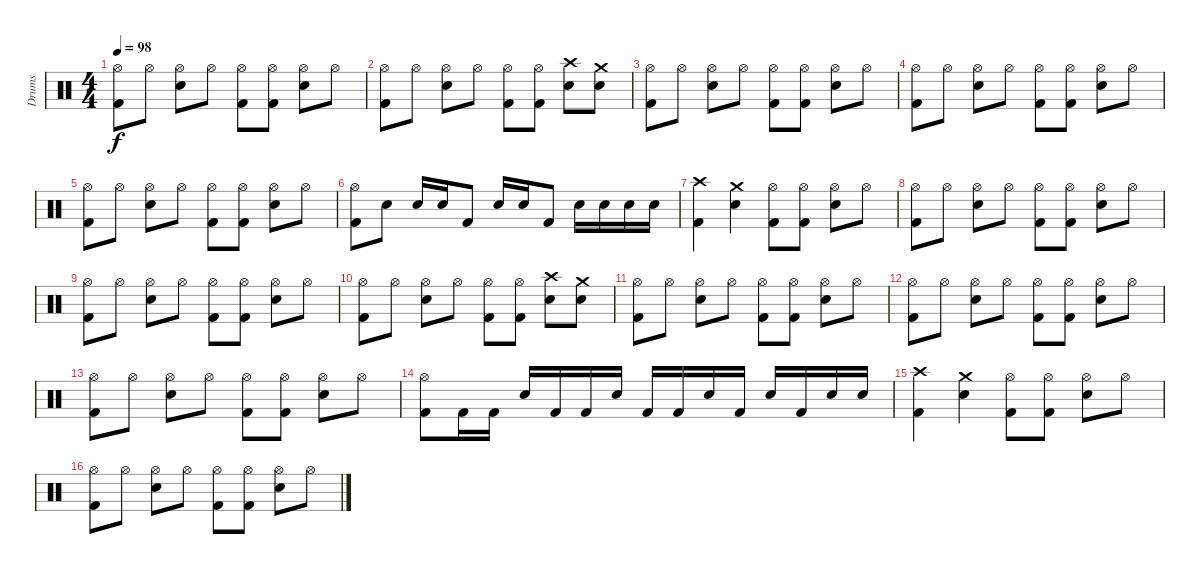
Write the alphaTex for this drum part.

\track ("Drums" "Drums") {instrument percussion}
\staff {score}
\articulation defaults
\ts (4 4)
\tempo 98
\clef neutral
\ks c
("Hi-Hat (open)" "Kick (hit) 2").8{dy f} "Hi-Hat (open)".8 ("Hi-Hat (open)" "Snare (hit) 2").8 "Hi-Hat (open)".8 ("Hi-Hat (open)" "Kick (hit) 2").8 ("Hi-Hat (open)" "Kick (hit) 2").8 ("Hi-Hat (open)" "Snare (hit) 2").8 "Hi-Hat (open)".8 |
("Hi-Hat (open)" "Kick (hit) 2").8 "Hi-Hat (open)".8 ("Hi-Hat (open)" "Snare (hit) 2").8 "Hi-Hat (open)".8 ("Hi-Hat (open)" "Kick (hit) 2").8 ("Hi-Hat (open)" "Kick (hit) 2").8 ("Crash high (hit)" "Snare (hit) 2").8 ("Crash medium (hit)" "Snare (hit) 2").8 |
("Hi-Hat (open)" "Kick (hit) 2").8 "Hi-Hat (open)".8 ("Hi-Hat (open)" "Snare (hit) 2").8 "Hi-Hat (open)".8 ("Hi-Hat (open)" "Kick (hit) 2").8 ("Hi-Hat (open)" "Kick (hit) 2").8 ("Hi-Hat (open)" "Snare (hit) 2").8 "Hi-Hat (open)".8 |
("Hi-Hat (open)" "Kick (hit) 2").8 "Hi-Hat (open)".8 ("Hi-Hat (open)" "Snare (hit) 2").8 "Hi-Hat (open)".8 ("Hi-Hat (open)" "Kick (hit) 2").8 ("Hi-Hat (open)" "Kick (hit) 2").8 ("Hi-Hat (open)" "Snare (hit) 2").8 "Hi-Hat (open)".8 |
("Hi-Hat (open)" "Kick (hit) 2").8 "Hi-Hat (open)".8 ("Hi-Hat (open)" "Snare (hit) 2").8 "Hi-Hat (open)".8 ("Hi-Hat (open)" "Kick (hit) 2").8 ("Hi-Hat (open)" "Kick (hit) 2").8 ("Hi-Hat (open)" "Snare (hit) 2").8 "Hi-Hat (open)".8 |
("Hi-Hat (open)" "Kick (hit) 2").8 "Snare (hit) 2".8 "Snare (hit) 2".16 "Snare (hit) 2".16 "Kick (hit) 2".8 "Snare (hit) 2".16 "Snare (hit) 2".16 "Kick (hit) 2".8 "Snare (hit) 2".16 "Snare (hit) 2".16 "Snare (hit) 2".16 "Snare (hit) 2".16 |
("Crash high (hit)" "Kick (hit) 2").4 ("Crash medium (hit)" "Snare (hit) 2").4 ("Hi-Hat (open)" "Kick (hit) 2").8 ("Hi-Hat (open)" "Kick (hit) 2").8 ("Hi-Hat (open)" "Snare (hit) 2").8 "Hi-Hat (open)".8 |
("Hi-Hat (open)" "Kick (hit) 2").8 "Hi-Hat (open)".8 ("Hi-Hat (open)" "Snare (hit) 2").8 "Hi-Hat (open)".8 ("Hi-Hat (open)" "Kick (hit) 2").8 ("Hi-Hat (open)" "Kick (hit) 2").8 ("Hi-Hat (open)" "Snare (hit) 2").8 "Hi-Hat (open)".8 |
("Hi-Hat (open)" "Kick (hit) 2").8 "Hi-Hat (open)".8 ("Hi-Hat (open)" "Snare (hit) 2").8 "Hi-Hat (open)".8 ("Hi-Hat (open)" "Kick (hit) 2").8 ("Hi-Hat (open)" "Kick (hit) 2").8 ("Hi-Hat (open)" "Snare (hit) 2").8 "Hi-Hat (open)".8 |
("Hi-Hat (open)" "Kick (hit) 2").8 "Hi-Hat (open)".8 ("Hi-Hat (open)" "Snare (hit) 2").8 "Hi-Hat (open)".8 ("Hi-Hat (open)" "Kick (hit) 2").8 ("Hi-Hat (open)" "Kick (hit) 2").8 ("Crash high (hit)" "Snare (hit) 2").8 ("Crash medium (hit)" "Snare (hit) 2").8 |
("Hi-Hat (open)" "Kick (hit) 2").8 "Hi-Hat (open)".8 ("Hi-Hat (open)" "Snare (hit) 2").8 "Hi-Hat (open)".8 ("Hi-Hat (open)" "Kick (hit) 2").8 ("Hi-Hat (open)" "Kick (hit) 2").8 ("Hi-Hat (open)" "Snare (hit) 2").8 "Hi-Hat (open)".8 |
("Hi-Hat (open)" "Kick (hit) 2").8 "Hi-Hat (open)".8 ("Hi-Hat (open)" "Snare (hit) 2").8 "Hi-Hat (open)".8 ("Hi-Hat (open)" "Kick (hit) 2").8 ("Hi-Hat (open)" "Kick (hit) 2").8 ("Hi-Hat (open)" "Snare (hit) 2").8 "Hi-Hat (open)".8 |
("Hi-Hat (open)" "Kick (hit) 2").8 "Hi-Hat (open)".8 ("Hi-Hat (open)" "Snare (hit) 2").8 "Hi-Hat (open)".8 ("Hi-Hat (open)" "Kick (hit) 2").8 ("Hi-Hat (open)" "Kick (hit) 2").8 ("Hi-Hat (open)" "Snare (hit) 2").8 "Hi-Hat (open)".8 |
("Hi-Hat (open)" "Kick (hit) 2").8 "Kick (hit) 2".16 "Kick (hit) 2".16 "Snare (hit) 2".16 "Kick (hit) 2".16 "Kick (hit) 2".16 "Snare (hit) 2".16 "Kick (hit) 2".16 "Kick (hit) 2".16 "Snare (hit) 2".16 "Kick (hit) 2".16 "Snare (hit) 2".16 "Kick (hit) 2".16 "Snare (hit) 2".16 "Snare (hit) 2".16 |
("Crash high (hit)" "Kick (hit) 2").4 ("Crash medium (hit)" "Snare (hit) 2").4 ("Hi-Hat (open)" "Kick (hit) 2").8 ("Hi-Hat (open)" "Kick (hit) 2").8 ("Hi-Hat (open)" "Snare (hit) 2").8 "Hi-Hat (open)".8 |
("Hi-Hat (open)" "Kick (hit) 2").8 "Hi-Hat (open)".8 ("Hi-Hat (open)" "Snare (hit) 2").8 "Hi-Hat (open)".8 ("Hi-Hat (open)" "Kick (hit) 2").8 ("Hi-Hat (open)" "Kick (hit) 2").8 ("Hi-Hat (open)" "Snare (hit) 2").8 "Hi-Hat (open)".8
